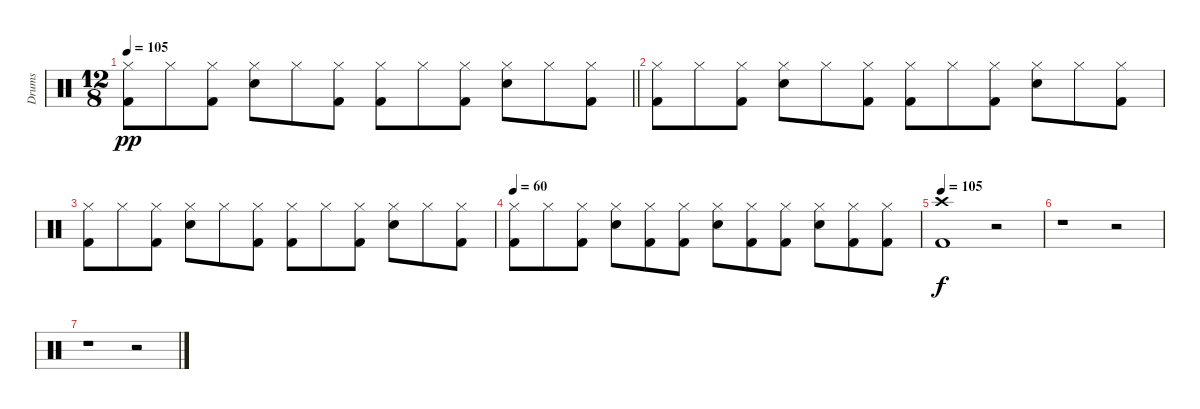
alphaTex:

\track ("Drums" "Drums") {instrument percussion}
\staff
\articulation defaults
\ts (12 8)
\tempo 105
\clef neutral
\barLineRight lightlight
\ks c
("Hi-Hat (closed)" "Kick (hit) 2").8{dy pp} "Hi-Hat (closed)".8 ("Hi-Hat (closed)" "Kick (hit) 2").8 ("Hi-Hat (closed)" "Snare (hit) 2").8 "Hi-Hat (closed)".8 ("Hi-Hat (closed)" "Kick (hit) 2").8 ("Hi-Hat (closed)" "Kick (hit) 2").8 "Hi-Hat (closed)".8 ("Hi-Hat (closed)" "Kick (hit) 2").8 ("Hi-Hat (closed)" "Snare (hit) 2").8 "Hi-Hat (closed)".8 ("Hi-Hat (closed)" "Kick (hit) 2").8 |
("Hi-Hat (closed)" "Kick (hit) 2").8 "Hi-Hat (closed)".8 ("Hi-Hat (closed)" "Kick (hit) 2").8 ("Hi-Hat (closed)" "Snare (hit) 2").8 "Hi-Hat (closed)".8 ("Hi-Hat (closed)" "Kick (hit) 2").8 ("Hi-Hat (closed)" "Kick (hit) 2").8 "Hi-Hat (closed)".8 ("Hi-Hat (closed)" "Kick (hit) 2").8 ("Hi-Hat (closed)" "Snare (hit) 2").8 "Hi-Hat (closed)".8 ("Hi-Hat (closed)" "Kick (hit) 2").8 |
("Hi-Hat (closed)" "Kick (hit) 2").8 "Hi-Hat (closed)".8 ("Hi-Hat (closed)" "Kick (hit) 2").8 ("Hi-Hat (closed)" "Snare (hit) 2").8 "Hi-Hat (closed)".8 ("Hi-Hat (closed)" "Kick (hit) 2").8 ("Hi-Hat (closed)" "Kick (hit) 2").8 "Hi-Hat (closed)".8 ("Hi-Hat (closed)" "Kick (hit) 2").8 ("Hi-Hat (closed)" "Snare (hit) 2").8 "Hi-Hat (closed)".8 ("Hi-Hat (closed)" "Kick (hit) 2").8 |
\tempo 60
("Hi-Hat (closed)" "Kick (hit) 2").8 "Hi-Hat (closed)".8 ("Hi-Hat (closed)" "Kick (hit) 2").8 ("Hi-Hat (closed)" "Snare (hit) 2").8 ("Hi-Hat (closed)" "Kick (hit) 2").8 ("Hi-Hat (closed)" "Kick (hit) 2").8 ("Hi-Hat (closed)" "Snare (hit) 2").8 ("Hi-Hat (closed)" "Kick (hit) 2").8 ("Hi-Hat (closed)" "Kick (hit) 2").8 ("Hi-Hat (closed)" "Snare (hit) 2").8 ("Hi-Hat (closed)" "Kick (hit) 2").8 ("Hi-Hat (closed)" "Kick (hit) 2").8 |
\tempo 105
("Crash high (hit)" "Kick (hit) 2").1{dy f} r.2 |
r.1 r.2 |
r.1 r.2
